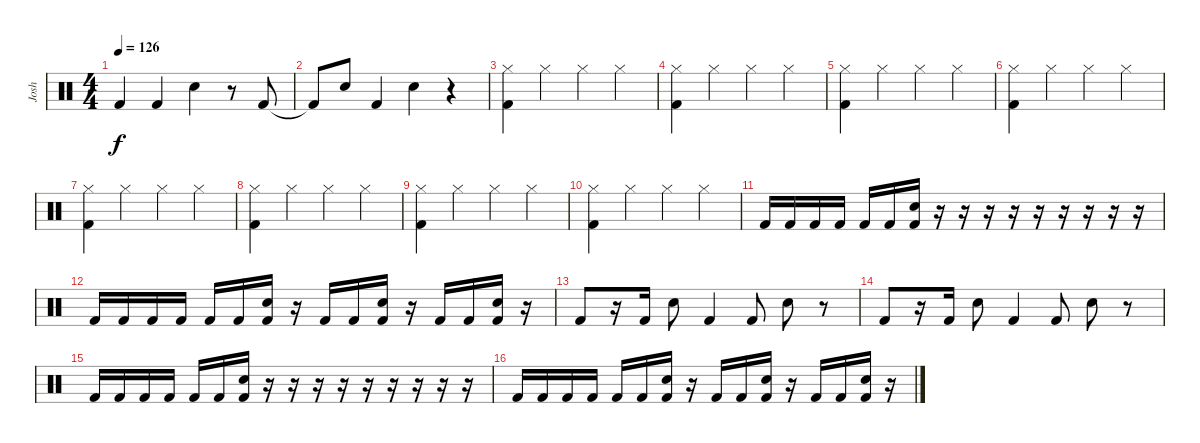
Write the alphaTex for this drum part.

\track ("Josh" "Josh") {instrument percussion}
\staff {score}
\articulation defaults
\ts (4 4)
\tempo 126
\clef neutral
\ks c "Kick (hit) 2".4{dy f} "Kick (hit) 2".4 "Snare (hit) 2".4
r.8 "Kick (hit) 2".8 |
"Kick (hit) 2"{t}.8 "Snare (hit) 2".8 "Kick (hit) 2".4 "Snare (hit) 2".4 r.4 |
("Hi-Hat (closed)" "Kick (hit) 2").4 "Hi-Hat (closed)".4 "Hi-Hat (closed)".4 "Hi-Hat (closed)".4 |
("Hi-Hat (closed)" "Kick (hit) 2").4 "Hi-Hat (closed)".4 "Hi-Hat (closed)".4 "Hi-Hat (closed)".4 |
("Hi-Hat (closed)" "Kick (hit) 2").4 "Hi-Hat (closed)".4 "Hi-Hat (closed)".4 "Hi-Hat (closed)".4 |
("Hi-Hat (closed)" "Kick (hit) 2").4 "Hi-Hat (closed)".4 "Hi-Hat (closed)".4 "Hi-Hat (closed)".4 |
("Hi-Hat (closed)" "Kick (hit) 2").4 "Hi-Hat (closed)".4 "Hi-Hat (closed)".4 "Hi-Hat (closed)".4 |
("Hi-Hat (closed)" "Kick (hit) 2").4 "Hi-Hat (closed)".4 "Hi-Hat (closed)".4 "Hi-Hat (closed)".4 |
("Hi-Hat (closed)" "Kick (hit) 2").4 "Hi-Hat (closed)".4 "Hi-Hat (closed)".4 "Hi-Hat (closed)".4 |
("Hi-Hat (closed)" "Kick (hit) 2").4 "Hi-Hat (closed)".4 "Hi-Hat (closed)".4 "Hi-Hat (closed)".4 |
"Kick (hit) 2".16 "Kick (hit) 2".16 "Kick (hit) 2".16 "Kick (hit) 2".16 "Kick (hit) 2".16 "Kick (hit) 2".16 ("Snare (hit) 2" "Kick (hit) 2").16 r.16 r.16 r.16 r.16 r.16 r.16 r.16 r.16 r.16 |
"Kick (hit) 2".16 "Kick (hit) 2".16 "Kick (hit) 2".16 "Kick (hit) 2".16 "Kick (hit) 2".16 "Kick (hit) 2".16 ("Snare (hit) 2" "Kick (hit) 2").16 r.16 "Kick (hit) 2".16 "Kick (hit) 2".16 ("Snare (hit) 2" "Kick (hit) 2").16 r.16 "Kick (hit) 2".16 "Kick (hit) 2".16 ("Snare (hit) 2" "Kick (hit) 2").16 r.16 |
"Kick (hit) 2".8 r.16 "Kick (hit) 2".16 "Snare (hit) 2".8 "Kick (hit) 2".4 "Kick (hit) 2".8 "Snare (hit) 2".8 r.8 |
"Kick (hit) 2".8 r.16 "Kick (hit) 2".16 "Snare (hit) 2".8 "Kick (hit) 2".4 "Kick (hit) 2".8 "Snare (hit) 2".8 r.8 |
"Kick (hit) 2".16 "Kick (hit) 2".16 "Kick (hit) 2".16 "Kick (hit) 2".16 "Kick (hit) 2".16 "Kick (hit) 2".16 ("Snare (hit) 2" "Kick (hit) 2").16 r.16 r.16 r.16 r.16 r.16 r.16 r.16 r.16 r.16 |
"Kick (hit) 2".16 "Kick (hit) 2".16 "Kick (hit) 2".16 "Kick (hit) 2".16 "Kick (hit) 2".16 "Kick (hit) 2".16 ("Snare (hit) 2" "Kick (hit) 2").16 r.16 "Kick (hit) 2".16 "Kick (hit) 2".16 ("Snare (hit) 2" "Kick (hit) 2").16 r.16 "Kick (hit) 2".16 "Kick (hit) 2".16 ("Snare (hit) 2" "Kick (hit) 2").16 r.16
